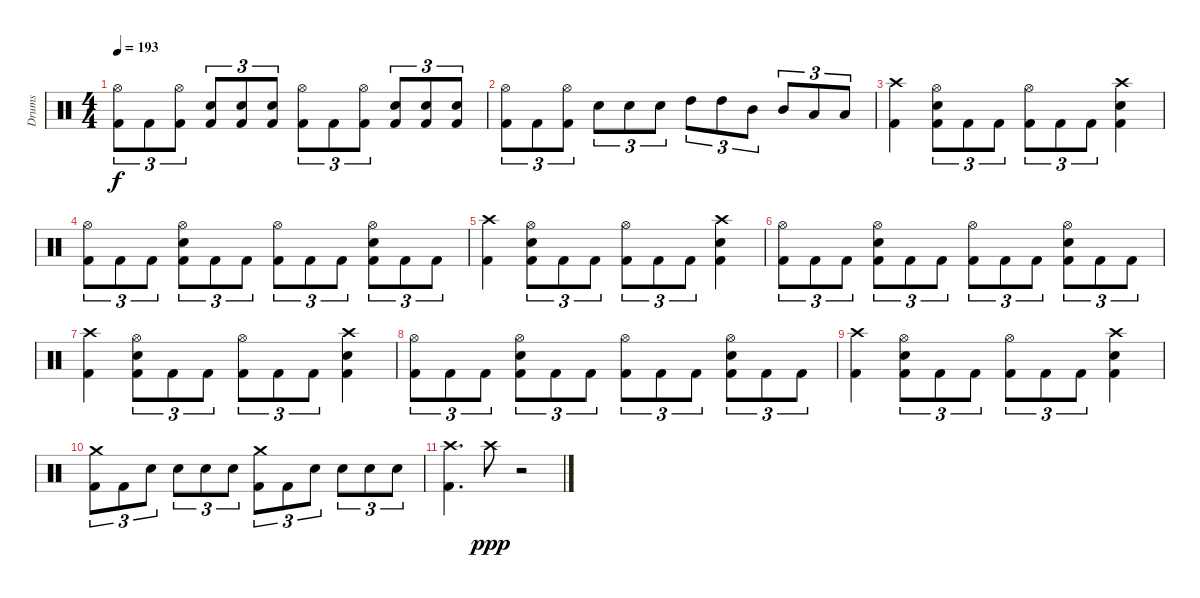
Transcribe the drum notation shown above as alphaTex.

\track ("Drums" "Drums") {instrument percussion}
\staff {score}
\articulation defaults
\ts (4 4)
\tempo 193
\clef neutral
\ks c
("Hi-Hat (open)" "Kick (hit) 2").8{tu (3 2) dy f} "Kick (hit) 2".8{tu (3 2)} ("Hi-Hat (open)" "Kick (hit) 2").8{tu (3 2)} ("Electric Snare (hit)" "Kick (hit) 2").8{tu (3 2)} ("Electric Snare (hit)" "Kick (hit) 2").8{tu (3 2)} ("Electric Snare (hit)" "Kick (hit) 2").8{tu (3 2)} ("Hi-Hat (open)" "Kick (hit) 2").8{tu (3 2)} "Kick (hit) 2".8{tu (3 2)} ("Hi-Hat (open)" "Kick (hit) 2").8{tu (3 2)} ("Electric Snare (hit)" "Kick (hit) 2").8{tu (3 2)} ("Electric Snare (hit)" "Kick (hit) 2").8{tu (3 2)} ("Electric Snare (hit)" "Kick (hit) 2").8{tu (3 2)} |
("Hi-Hat (open)" "Kick (hit) 2").8{tu (3 2)} "Kick (hit) 2".8{tu (3 2)} ("Hi-Hat (open)" "Kick (hit) 2").8{tu (3 2)} "Electric Snare (hit)".8{tu (3 2)} "Electric Snare (hit)".8{tu (3 2)} "Electric Snare (hit)".8{tu (3 2)} "High Tom (hit)".8{tu (3 2)} "High Tom (hit)".8{tu (3 2)} "Mid Tom (hit)".8{tu (3 2)} "Mid Tom (hit)".8{tu (3 2)} "Low Tom (hit)".8{tu (3 2)} "Low Tom (hit)".8{tu (3 2)} |
("Crash high (hit)" "Kick (hit) 2").4 ("Hi-Hat (open)" "Electric Snare (hit)" "Kick (hit) 2").8{tu (3 2)} "Kick (hit) 2".8{tu (3 2)} "Kick (hit) 2".8{tu (3 2)} ("Hi-Hat (open)" "Kick (hit) 2").8{tu (3 2)} "Kick (hit) 2".8{tu (3 2)} "Kick (hit) 2".8{tu (3 2)} ("Crash high (hit)" "Electric Snare (hit)" "Kick (hit) 2").4 |
("Hi-Hat (open)" "Kick (hit) 2").8{tu (3 2)} "Kick (hit) 2".8{tu (3 2)} "Kick (hit) 2".8{tu (3 2)} ("Hi-Hat (open)" "Electric Snare (hit)" "Kick (hit) 2").8{tu (3 2)} "Kick (hit) 2".8{tu (3 2)} "Kick (hit) 2".8{tu (3 2)} ("Hi-Hat (open)" "Kick (hit) 2").8{tu (3 2)} "Kick (hit) 2".8{tu (3 2)} "Kick (hit) 2".8{tu (3 2)} ("Hi-Hat (open)" "Electric Snare (hit)" "Kick (hit) 2").8{tu (3 2)} "Kick (hit) 2".8{tu (3 2)} "Kick (hit) 2".8{tu (3 2)} |
("Crash high (hit)" "Kick (hit) 2").4 ("Hi-Hat (open)" "Electric Snare (hit)" "Kick (hit) 2").8{tu (3 2)} "Kick (hit) 2".8{tu (3 2)} "Kick (hit) 2".8{tu (3 2)} ("Hi-Hat (open)" "Kick (hit) 2").8{tu (3 2)} "Kick (hit) 2".8{tu (3 2)} "Kick (hit) 2".8{tu (3 2)} ("Crash high (hit)" "Electric Snare (hit)" "Kick (hit) 2").4 |
("Hi-Hat (open)" "Kick (hit) 2").8{tu (3 2)} "Kick (hit) 2".8{tu (3 2)} "Kick (hit) 2".8{tu (3 2)} ("Hi-Hat (open)" "Electric Snare (hit)" "Kick (hit) 2").8{tu (3 2)} "Kick (hit) 2".8{tu (3 2)} "Kick (hit) 2".8{tu (3 2)} ("Hi-Hat (open)" "Kick (hit) 2").8{tu (3 2)} "Kick (hit) 2".8{tu (3 2)} "Kick (hit) 2".8{tu (3 2)} ("Hi-Hat (open)" "Electric Snare (hit)" "Kick (hit) 2").8{tu (3 2)} "Kick (hit) 2".8{tu (3 2)} "Kick (hit) 2".8{tu (3 2)} |
("Crash high (hit)" "Kick (hit) 2").4 ("Hi-Hat (open)" "Electric Snare (hit)" "Kick (hit) 2").8{tu (3 2)} "Kick (hit) 2".8{tu (3 2)} "Kick (hit) 2".8{tu (3 2)} ("Hi-Hat (open)" "Kick (hit) 2").8{tu (3 2)} "Kick (hit) 2".8{tu (3 2)} "Kick (hit) 2".8{tu (3 2)} ("Crash high (hit)" "Electric Snare (hit)" "Kick (hit) 2").4 |
("Hi-Hat (open)" "Kick (hit) 2").8{tu (3 2)} "Kick (hit) 2".8{tu (3 2)} "Kick (hit) 2".8{tu (3 2)} ("Hi-Hat (open)" "Electric Snare (hit)" "Kick (hit) 2").8{tu (3 2)} "Kick (hit) 2".8{tu (3 2)} "Kick (hit) 2".8{tu (3 2)} ("Hi-Hat (open)" "Kick (hit) 2").8{tu (3 2)} "Kick (hit) 2".8{tu (3 2)} "Kick (hit) 2".8{tu (3 2)} ("Hi-Hat (open)" "Electric Snare (hit)" "Kick (hit) 2").8{tu (3 2)} "Kick (hit) 2".8{tu (3 2)} "Kick (hit) 2".8{tu (3 2)} |
("Crash high (hit)" "Kick (hit) 2").4 ("Hi-Hat (open)" "Electric Snare (hit)" "Kick (hit) 2").8{tu (3 2)} "Kick (hit) 2".8{tu (3 2)} "Kick (hit) 2".8{tu (3 2)} ("Hi-Hat (open)" "Kick (hit) 2").8{tu (3 2)} "Kick (hit) 2".8{tu (3 2)} "Kick (hit) 2".8{tu (3 2)} ("Crash high (hit)" "Electric Snare (hit)" "Kick (hit) 2").4 |
("Crash medium (hit)" "Kick (hit) 2").8{tu (3 2)} "Kick (hit) 2".8{tu (3 2)} "Electric Snare (hit)".8{tu (3 2)} "Electric Snare (hit)".8{tu (3 2)} "Electric Snare (hit)".8{tu (3 2)} "Electric Snare (hit)".8{tu (3 2)} ("Crash medium (hit)" "Kick (hit) 2").8{tu (3 2)} "Kick (hit) 2".8{tu (3 2)} "Electric Snare (hit)".8{tu (3 2)} "Electric Snare (hit)".8{tu (3 2)} "Electric Snare (hit)".8{tu (3 2)} "Electric Snare (hit)".8{tu (3 2)} |
("Crash high (hit)" "Kick (hit) 2").4{d} "Crash high (hit)".8{dy ppp} r.2
